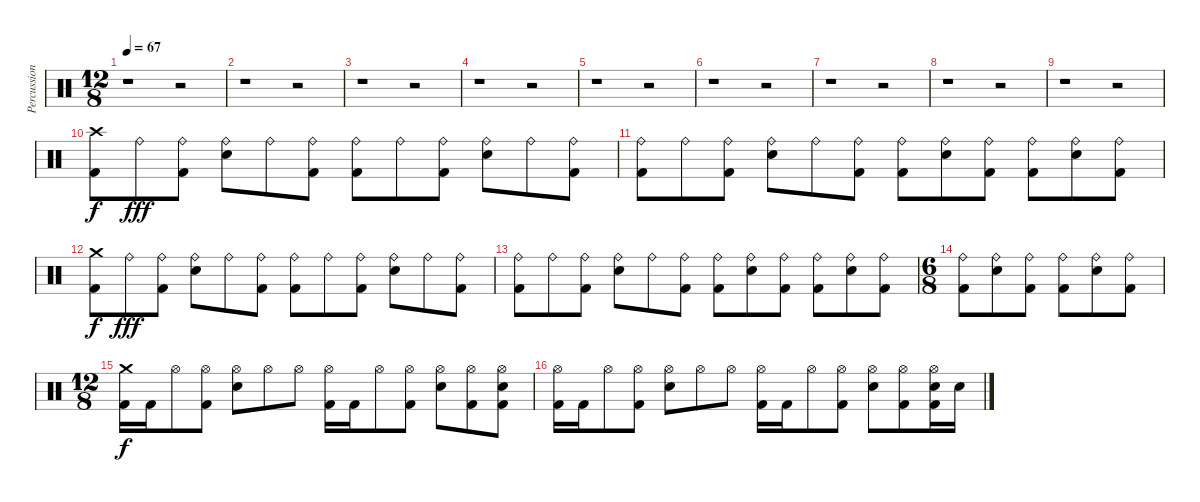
\track ("Percussions" "Percussion") {instrument percussion}
\staff {score}
\articulation defaults
\ts (12 8)
\tempo 67
\clef neutral
\ks c
r.1{dy f} r.2 |
r.1 r.2 |
r.1 r.2 |
r.1 r.2 |
r.1 r.2 |
r.1 r.2 |
r.1 r.2 |
r.1 r.2 |
r.1 r.2 |
("Kick (hit) 2" "Crash high (hit)").8 "Ride (bell)".8{dy fff} ("Kick (hit) 2" "Ride (bell)").8 ("Electric Snare (hit)" "Ride (bell)").8 "Ride (bell)".8 ("Kick (hit) 2" "Ride (bell)").8 ("Kick (hit) 2" "Ride (bell)").8 "Ride (bell)".8 ("Kick (hit) 2" "Ride (bell)").8 ("Electric Snare (hit)" "Ride (bell)").8 "Ride (bell)".8 ("Kick (hit) 2" "Ride (bell)").8 |
("Kick (hit) 2" "Ride (bell)").8 "Ride (bell)".8 ("Kick (hit) 2" "Ride (bell)").8 ("Electric Snare (hit)" "Ride (bell)").8 "Ride (bell)".8 ("Kick (hit) 2" "Ride (bell)").8 ("Kick (hit) 2" "Ride (bell)").8 ("Electric Snare (hit)" "Ride (bell)").8 ("Kick (hit) 2" "Ride (bell)").8 ("Kick (hit) 2" "Ride (bell)").8 ("Electric Snare (hit)" "Ride (bell)").8 ("Kick (hit) 2" "Ride (bell)").8 |
("Kick (hit) 2" "Crash medium (hit)").8{dy f} "Ride (bell)".8{dy fff} ("Kick (hit) 2" "Ride (bell)").8 ("Electric Snare (hit)" "Ride (bell)").8 "Ride (bell)".8 ("Kick (hit) 2" "Ride (bell)").8 ("Kick (hit) 2" "Ride (bell)").8 "Ride (bell)".8 ("Kick (hit) 2" "Ride (bell)").8 ("Electric Snare (hit)" "Ride (bell)").8 "Ride (bell)".8 ("Kick (hit) 2" "Ride (bell)").8 |
("Kick (hit) 2" "Ride (bell)").8 "Ride (bell)".8 ("Kick (hit) 2" "Ride (bell)").8 ("Electric Snare (hit)" "Ride (bell)").8 "Ride (bell)".8 ("Kick (hit) 2" "Ride (bell)").8 ("Kick (hit) 2" "Ride (bell)").8 ("Electric Snare (hit)" "Ride (bell)").8 ("Kick (hit) 2" "Ride (bell)").8 ("Kick (hit) 2" "Ride (bell)").8 ("Electric Snare (hit)" "Ride (bell)").8 ("Kick (hit) 2" "Ride (bell)").8 |
\ts (6 8)
("Kick (hit) 2" "Ride (bell)").8 ("Electric Snare (hit)" "Ride (bell)").8 ("Kick (hit) 2" "Ride (bell)").8 ("Kick (hit) 2" "Ride (bell)").8 ("Electric Snare (hit)" "Ride (bell)").8 ("Kick (hit) 2" "Ride (bell)").8 |
\ts (12 8)
("Kick (hit) 2" "Crash medium (hit)").16{dy f} "Kick (hit) 2".16 "Hi-Hat (open)".8 ("Kick (hit) 2" "Hi-Hat (open)").8 ("Electric Snare (hit)" "Hi-Hat (open)").8 "Hi-Hat (open)".8 "Hi-Hat (open)".8 ("Kick (hit) 2" "Hi-Hat (open)").16 "Kick (hit) 2".16 "Hi-Hat (open)".8 ("Kick (hit) 2" "Hi-Hat (open)").8 ("Electric Snare (hit)" "Hi-Hat (open)").8 ("Kick (hit) 2" "Hi-Hat (open)").8 ("Kick (hit) 2" "Electric Snare (hit)" "Hi-Hat (open)").8 |
("Kick (hit) 2" "Hi-Hat (open)").16 "Kick (hit) 2".16 "Hi-Hat (open)".8 ("Kick (hit) 2" "Hi-Hat (open)").8 ("Electric Snare (hit)" "Hi-Hat (open)").8 "Hi-Hat (open)".8 "Hi-Hat (open)".8 ("Kick (hit) 2" "Hi-Hat (open)").16 "Kick (hit) 2".16 "Hi-Hat (open)".8 ("Kick (hit) 2" "Hi-Hat (open)").8 ("Electric Snare (hit)" "Hi-Hat (open)").8 ("Kick (hit) 2" "Hi-Hat (open)").8 ("Kick (hit) 2" "Electric Snare (hit)" "Hi-Hat (open)").16 "Electric Snare (hit)".16
